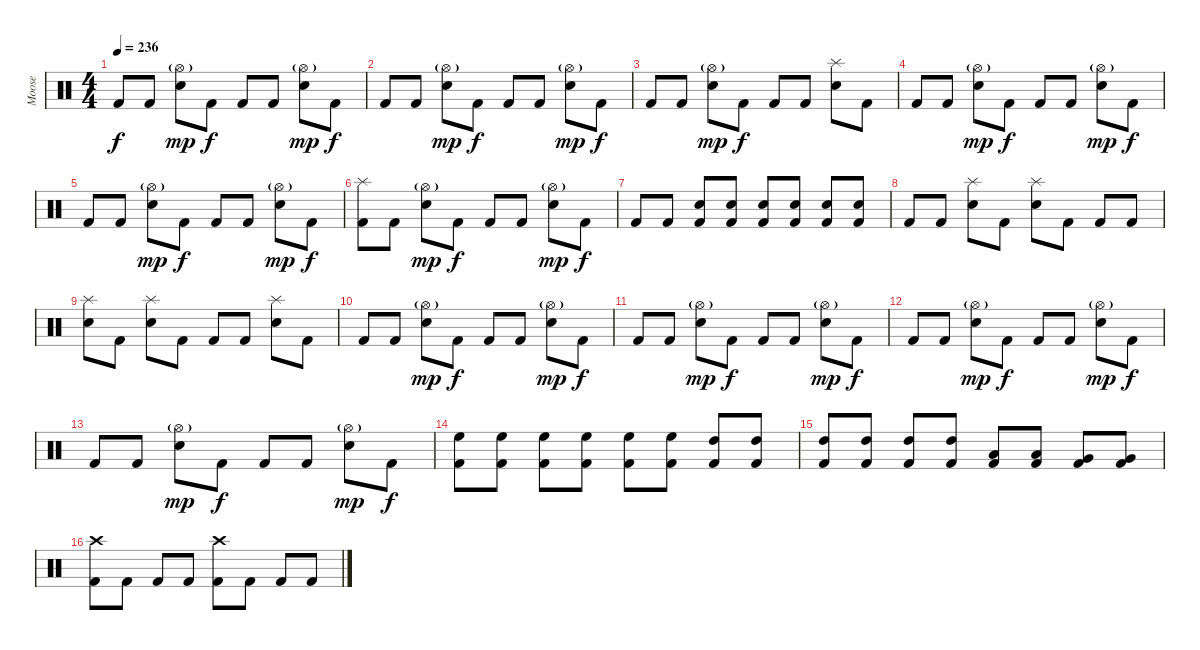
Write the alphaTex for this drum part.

\track ("Moose" "Moose") {instrument percussion}
\staff {score}
\articulation defaults
\ts (4 4)
\tempo 236
\clef neutral
\ks c "Kick (hit) 2".8{dy f} "Kick (hit) 2".8
("Hi-Hat (open)"{g} "Electric Snare (hit)").8{dy mp} "Kick (hit) 2".8{dy f} "Kick (hit) 2".8 "Kick (hit) 2".8 ("Hi-Hat (open)"{g} "Electric Snare (hit)").8{dy mp} "Kick (hit) 2".8{dy f} |
"Kick (hit) 2".8 "Kick (hit) 2".8 ("Hi-Hat (open)"{g} "Electric Snare (hit)").8{dy mp} "Kick (hit) 2".8{dy f} "Kick (hit) 2".8 "Kick (hit) 2".8 ("Hi-Hat (open)"{g} "Electric Snare (hit)").8{dy mp} "Kick (hit) 2".8{dy f} |
"Kick (hit) 2".8 "Kick (hit) 2".8 ("Hi-Hat (open)"{g} "Electric Snare (hit)").8{dy mp} "Kick (hit) 2".8{dy f} "Kick (hit) 2".8 "Kick (hit) 2".8 ("Splash (hit)" "Electric Snare (hit)").8 "Kick (hit) 2".8 |
"Kick (hit) 2".8 "Kick (hit) 2".8 ("Hi-Hat (open)"{g} "Electric Snare (hit)").8{dy mp} "Kick (hit) 2".8{dy f} "Kick (hit) 2".8 "Kick (hit) 2".8 ("Hi-Hat (open)"{g} "Electric Snare (hit)").8{dy mp} "Kick (hit) 2".8{dy f} |
"Kick (hit) 2".8 "Kick (hit) 2".8 ("Hi-Hat (open)"{g} "Electric Snare (hit)").8{dy mp} "Kick (hit) 2".8{dy f} "Kick (hit) 2".8 "Kick (hit) 2".8 ("Hi-Hat (open)"{g} "Electric Snare (hit)").8{dy mp} "Kick (hit) 2".8{dy f} |
("Splash (hit)" "Kick (hit) 2").8 "Kick (hit) 2".8 ("Hi-Hat (open)"{g} "Electric Snare (hit)").8{dy mp} "Kick (hit) 2".8{dy f} "Kick (hit) 2".8 "Kick (hit) 2".8 ("Hi-Hat (open)"{g} "Electric Snare (hit)").8{dy mp} "Kick (hit) 2".8{dy f} |
"Kick (hit) 2".8 "Kick (hit) 2".8 ("Electric Snare (hit)" "Kick (hit) 2").8 ("Electric Snare (hit)" "Kick (hit) 2").8 ("Electric Snare (hit)" "Kick (hit) 2").8 ("Electric Snare (hit)" "Kick (hit) 2").8 ("Electric Snare (hit)" "Kick (hit) 2").8 ("Electric Snare (hit)" "Kick (hit) 2").8 |
"Kick (hit) 2".8 "Kick (hit) 2".8 ("Splash (hit)" "Electric Snare (hit)").8 "Kick (hit) 2".8 ("Splash (hit)" "Electric Snare (hit)").8 "Kick (hit) 2".8 "Kick (hit) 2".8 "Kick (hit) 2".8 |
("Splash (hit)" "Electric Snare (hit)").8 "Kick (hit) 2".8 ("Splash (hit)" "Electric Snare (hit)").8 "Kick (hit) 2".8 "Kick (hit) 2".8 "Kick (hit) 2".8 ("Splash (hit)" "Electric Snare (hit)").8 "Kick (hit) 2".8 |
"Kick (hit) 2".8 "Kick (hit) 2".8 ("Hi-Hat (open)"{g} "Electric Snare (hit)").8{dy mp} "Kick (hit) 2".8{dy f} "Kick (hit) 2".8 "Kick (hit) 2".8 ("Hi-Hat (open)"{g} "Electric Snare (hit)").8{dy mp} "Kick (hit) 2".8{dy f} |
"Kick (hit) 2".8 "Kick (hit) 2".8 ("Hi-Hat (open)"{g} "Electric Snare (hit)").8{dy mp} "Kick (hit) 2".8{dy f} "Kick (hit) 2".8 "Kick (hit) 2".8 ("Hi-Hat (open)"{g} "Electric Snare (hit)").8{dy mp} "Kick (hit) 2".8{dy f} |
"Kick (hit) 2".8 "Kick (hit) 2".8 ("Hi-Hat (open)"{g} "Electric Snare (hit)").8{dy mp} "Kick (hit) 2".8{dy f} "Kick (hit) 2".8 "Kick (hit) 2".8 ("Hi-Hat (open)"{g} "Electric Snare (hit)").8{dy mp} "Kick (hit) 2".8{dy f} |
"Kick (hit) 2".8 "Kick (hit) 2".8 ("Hi-Hat (open)"{g} "Electric Snare (hit)").8{dy mp} "Kick (hit) 2".8{dy f} "Kick (hit) 2".8 "Kick (hit) 2".8 ("Hi-Hat (open)"{g} "Electric Snare (hit)").8{dy mp} "Kick (hit) 2".8{dy f} |
("High Floor Tom (hit)" "Kick (hit) 2").8 ("High Floor Tom (hit)" "Kick (hit) 2").8 ("High Floor Tom (hit)" "Kick (hit) 2").8 ("High Floor Tom (hit)" "Kick (hit) 2").8 ("High Floor Tom (hit)" "Kick (hit) 2").8 ("High Floor Tom (hit)" "Kick (hit) 2").8 ("High Tom (hit)" "Kick (hit) 2").8 ("High Tom (hit)" "Kick (hit) 2").8 |
("High Tom (hit)" "Kick (hit) 2").8 ("High Tom (hit)" "Kick (hit) 2").8 ("High Tom (hit)" "Kick (hit) 2").8 ("High Tom (hit)" "Kick (hit) 2").8 ("Low Tom (hit)" "Kick (hit) 2").8 ("Low Tom (hit)" "Kick (hit) 2").8 ("Very Low Tom (hit)" "Kick (hit) 2").8 ("Very Low Tom (hit)" "Kick (hit) 2").8 |
("Crash high (hit)" "Kick (hit) 2").8 "Kick (hit) 2".8 "Kick (hit) 2".8 "Kick (hit) 2".8 ("Crash high (hit)" "Kick (hit) 2").8 "Kick (hit) 2".8 "Kick (hit) 2".8 "Kick (hit) 2".8
